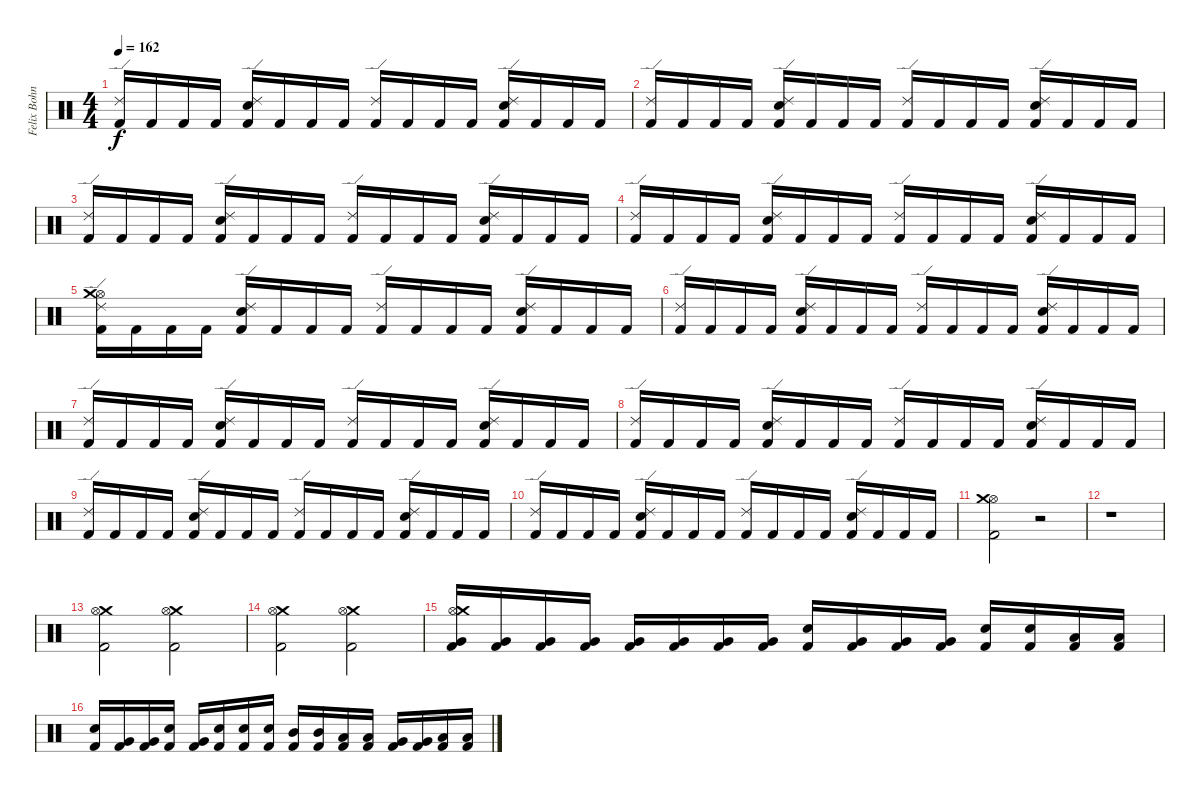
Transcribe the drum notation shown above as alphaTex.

\track ("Felix Bohnke" "Felix Bohn") {instrument percussion}
\staff {score}
\articulation defaults
\ts (4 4)
\tempo 162
\clef neutral
\ks c
("Ride (edge) 2" "Kick (hit) 2").16{dy f} "Kick (hit) 2".16 "Kick (hit) 2".16 "Kick (hit) 2".16 ("Electric Snare (hit)" "Ride (edge) 2" "Kick (hit) 2").16 "Kick (hit) 2".16 "Kick (hit) 2".16 "Kick (hit) 2".16 ("Ride (edge) 2" "Kick (hit) 2").16 "Kick (hit) 2".16 "Kick (hit) 2".16 "Kick (hit) 2".16 ("Electric Snare (hit)" "Ride (edge) 2" "Kick (hit) 2").16 "Kick (hit) 2".16 "Kick (hit) 2".16 "Kick (hit) 2".16 |
("Ride (edge) 2" "Kick (hit) 2").16 "Kick (hit) 2".16 "Kick (hit) 2".16 "Kick (hit) 2".16 ("Electric Snare (hit)" "Ride (edge) 2" "Kick (hit) 2").16 "Kick (hit) 2".16 "Kick (hit) 2".16 "Kick (hit) 2".16 ("Ride (edge) 2" "Kick (hit) 2").16 "Kick (hit) 2".16 "Kick (hit) 2".16 "Kick (hit) 2".16 ("Electric Snare (hit)" "Ride (edge) 2" "Kick (hit) 2").16 "Kick (hit) 2".16 "Kick (hit) 2".16 "Kick (hit) 2".16 |
("Ride (edge) 2" "Kick (hit) 2").16 "Kick (hit) 2".16 "Kick (hit) 2".16 "Kick (hit) 2".16 ("Electric Snare (hit)" "Ride (edge) 2" "Kick (hit) 2").16 "Kick (hit) 2".16 "Kick (hit) 2".16 "Kick (hit) 2".16 ("Ride (edge) 2" "Kick (hit) 2").16 "Kick (hit) 2".16 "Kick (hit) 2".16 "Kick (hit) 2".16 ("Electric Snare (hit)" "Ride (edge) 2" "Kick (hit) 2").16 "Kick (hit) 2".16 "Kick (hit) 2".16 "Kick (hit) 2".16 |
("Ride (edge) 2" "Kick (hit) 2").16 "Kick (hit) 2".16 "Kick (hit) 2".16 "Kick (hit) 2".16 ("Electric Snare (hit)" "Ride (edge) 2" "Kick (hit) 2").16 "Kick (hit) 2".16 "Kick (hit) 2".16 "Kick (hit) 2".16 ("Ride (edge) 2" "Kick (hit) 2").16 "Kick (hit) 2".16 "Kick (hit) 2".16 "Kick (hit) 2".16 ("Electric Snare (hit)" "Ride (edge) 2" "Kick (hit) 2").16 "Kick (hit) 2".16 "Kick (hit) 2".16 "Kick (hit) 2".16 |
("Hi-Hat (open)" "Crash medium (hit)" "Ride (edge) 2" "Kick (hit) 2").16 "Kick (hit) 2".16 "Kick (hit) 2".16 "Kick (hit) 2".16 ("Electric Snare (hit)" "Ride (edge) 2" "Kick (hit) 2").16 "Kick (hit) 2".16 "Kick (hit) 2".16 "Kick (hit) 2".16 ("Ride (edge) 2" "Kick (hit) 2").16 "Kick (hit) 2".16 "Kick (hit) 2".16 "Kick (hit) 2".16 ("Electric Snare (hit)" "Ride (edge) 2" "Kick (hit) 2").16 "Kick (hit) 2".16 "Kick (hit) 2".16 "Kick (hit) 2".16 |
("Ride (edge) 2" "Kick (hit) 2").16 "Kick (hit) 2".16 "Kick (hit) 2".16 "Kick (hit) 2".16 ("Electric Snare (hit)" "Ride (edge) 2" "Kick (hit) 2").16 "Kick (hit) 2".16 "Kick (hit) 2".16 "Kick (hit) 2".16 ("Ride (edge) 2" "Kick (hit) 2").16 "Kick (hit) 2".16 "Kick (hit) 2".16 "Kick (hit) 2".16 ("Electric Snare (hit)" "Ride (edge) 2" "Kick (hit) 2").16 "Kick (hit) 2".16 "Kick (hit) 2".16 "Kick (hit) 2".16 |
("Ride (edge) 2" "Kick (hit) 2").16 "Kick (hit) 2".16 "Kick (hit) 2".16 "Kick (hit) 2".16 ("Electric Snare (hit)" "Ride (edge) 2" "Kick (hit) 2").16 "Kick (hit) 2".16 "Kick (hit) 2".16 "Kick (hit) 2".16 ("Ride (edge) 2" "Kick (hit) 2").16 "Kick (hit) 2".16 "Kick (hit) 2".16 "Kick (hit) 2".16 ("Electric Snare (hit)" "Ride (edge) 2" "Kick (hit) 2").16 "Kick (hit) 2".16 "Kick (hit) 2".16 "Kick (hit) 2".16 |
("Ride (edge) 2" "Kick (hit) 2").16 "Kick (hit) 2".16 "Kick (hit) 2".16 "Kick (hit) 2".16 ("Electric Snare (hit)" "Ride (edge) 2" "Kick (hit) 2").16 "Kick (hit) 2".16 "Kick (hit) 2".16 "Kick (hit) 2".16 ("Ride (edge) 2" "Kick (hit) 2").16 "Kick (hit) 2".16 "Kick (hit) 2".16 "Kick (hit) 2".16 ("Electric Snare (hit)" "Ride (edge) 2" "Kick (hit) 2").16 "Kick (hit) 2".16 "Kick (hit) 2".16 "Kick (hit) 2".16 |
("Ride (edge) 2" "Kick (hit) 2").16 "Kick (hit) 2".16 "Kick (hit) 2".16 "Kick (hit) 2".16 ("Electric Snare (hit)" "Ride (edge) 2" "Kick (hit) 2").16 "Kick (hit) 2".16 "Kick (hit) 2".16 "Kick (hit) 2".16 ("Ride (edge) 2" "Kick (hit) 2").16 "Kick (hit) 2".16 "Kick (hit) 2".16 "Kick (hit) 2".16 ("Electric Snare (hit)" "Ride (edge) 2" "Kick (hit) 2").16 "Kick (hit) 2".16 "Kick (hit) 2".16 "Kick (hit) 2".16 |
("Ride (edge) 2" "Kick (hit) 2").16 "Kick (hit) 2".16 "Kick (hit) 2".16 "Kick (hit) 2".16 ("Electric Snare (hit)" "Ride (edge) 2" "Kick (hit) 2").16 "Kick (hit) 2".16 "Kick (hit) 2".16 "Kick (hit) 2".16 ("Ride (edge) 2" "Kick (hit) 2").16 "Kick (hit) 2".16 "Kick (hit) 2".16 "Kick (hit) 2".16 ("Electric Snare (hit)" "Ride (edge) 2" "Kick (hit) 2").16 "Kick (hit) 2".16 "Kick (hit) 2".16 "Kick (hit) 2".16 |
("Hi-Hat (open)" "Crash medium (hit)" "Kick (hit) 2").2 r.2 |
r.1 |
("Crash medium (hit)" "Hi-Hat (open)" "Kick (hit) 2").2 ("Crash medium (hit)" "Hi-Hat (open)" "Kick (hit) 2").2 |
("Crash medium (hit)" "Hi-Hat (open)" "Kick (hit) 2").2 ("Crash medium (hit)" "Hi-Hat (open)" "Kick (hit) 2").2 |
("Very Low Tom (hit)" "Hi-Hat (open)" "Crash medium (hit)" "Kick (hit) 2").16 ("Very Low Tom (hit)" "Kick (hit) 2").16 ("Very Low Tom (hit)" "Kick (hit) 2").16 ("Very Low Tom (hit)" "Kick (hit) 2").16 ("Very Low Tom (hit)" "Kick (hit) 2").16 ("Very Low Tom (hit)" "Kick (hit) 2").16 ("Very Low Tom (hit)" "Kick (hit) 2").16 ("Very Low Tom (hit)" "Kick (hit) 2").16 ("Electric Snare (hit)" "Kick (hit) 2").16 ("Very Low Tom (hit)" "Kick (hit) 2").16 ("Very Low Tom (hit)" "Kick (hit) 2").16 ("Very Low Tom (hit)" "Kick (hit) 2").16 ("Electric Snare (hit)" "Kick (hit) 2").16 ("Electric Snare (hit)" "Kick (hit) 2").16 ("Low Tom (hit)" "Kick (hit) 2").16 ("Low Tom (hit)" "Kick (hit) 2").16 |
("Electric Snare (hit)" "Kick (hit) 2").16 ("Very Low Tom (hit)" "Kick (hit) 2").16 ("Very Low Tom (hit)" "Kick (hit) 2").16 ("Electric Snare (hit)" "Kick (hit) 2").16 ("Very Low Tom (hit)" "Kick (hit) 2").16 ("Electric Snare (hit)" "Kick (hit) 2").16 ("Electric Snare (hit)" "Kick (hit) 2").16 ("Electric Snare (hit)" "Kick (hit) 2").16 ("Mid Tom (hit)" "Kick (hit) 2").16 ("Mid Tom (hit)" "Kick (hit) 2").16 ("Low Tom (hit)" "Kick (hit) 2").16 ("Low Tom (hit)" "Kick (hit) 2").16 ("Very Low Tom (hit)" "Kick (hit) 2").16 ("Very Low Tom (hit)" "Kick (hit) 2").16 ("Low Floor Tom (hit)" "Kick (hit) 2").16 ("Low Floor Tom (hit)" "Kick (hit) 2").16
